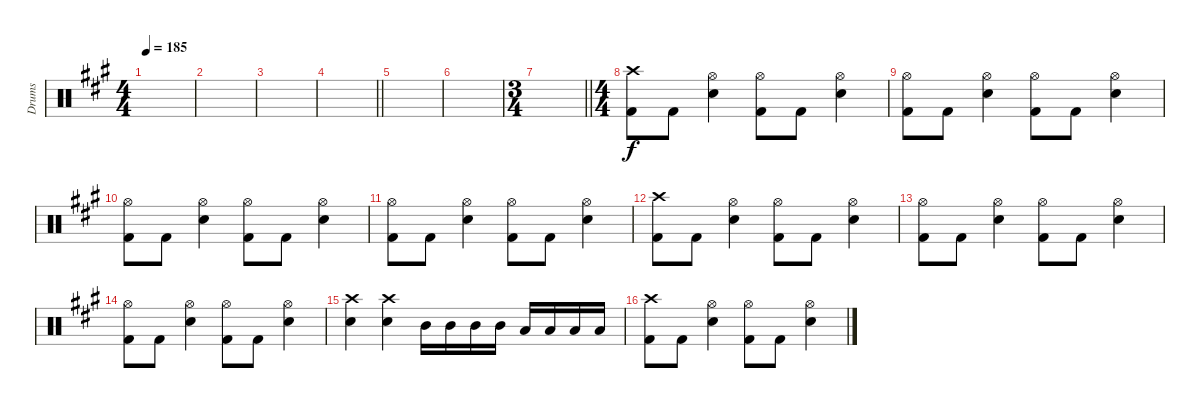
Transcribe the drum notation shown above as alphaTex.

\track ("Drums" "Drums") {instrument percussion}
\staff {score}
\articulation defaults
\ts (4 4)
\tempo 185
\clef neutral
\ks f#minor
|
|
|
\barLineRight lightlight
|
|
|
\ts (3 4)
\barLineRight lightlight
|
\ts (4 4)
("Crash high (hit)" "Kick (hit) 2").8{dy f} "Kick (hit) 2".8 ("Hi-Hat (open)" "Electric Snare (hit)").4 ("Hi-Hat (open)" "Kick (hit) 2").8 "Kick (hit) 2".8 ("Hi-Hat (open)" "Electric Snare (hit)").4 |
("Hi-Hat (open)" "Kick (hit) 2").8 "Kick (hit) 2".8 ("Hi-Hat (open)" "Electric Snare (hit)").4 ("Hi-Hat (open)" "Kick (hit) 2").8 "Kick (hit) 2".8 ("Hi-Hat (open)" "Electric Snare (hit)").4 |
("Hi-Hat (open)" "Kick (hit) 2").8 "Kick (hit) 2".8 ("Hi-Hat (open)" "Electric Snare (hit)").4 ("Hi-Hat (open)" "Kick (hit) 2").8 "Kick (hit) 2".8 ("Hi-Hat (open)" "Electric Snare (hit)").4 |
("Hi-Hat (open)" "Kick (hit) 2").8 "Kick (hit) 2".8 ("Hi-Hat (open)" "Electric Snare (hit)").4 ("Hi-Hat (open)" "Kick (hit) 2").8 "Kick (hit) 2".8 ("Hi-Hat (open)" "Electric Snare (hit)").4 |
("Crash high (hit)" "Kick (hit) 2").8 "Kick (hit) 2".8 ("Hi-Hat (open)" "Electric Snare (hit)").4 ("Hi-Hat (open)" "Kick (hit) 2").8 "Kick (hit) 2".8 ("Hi-Hat (open)" "Electric Snare (hit)").4 |
("Hi-Hat (open)" "Kick (hit) 2").8 "Kick (hit) 2".8 ("Hi-Hat (open)" "Electric Snare (hit)").4 ("Hi-Hat (open)" "Kick (hit) 2").8 "Kick (hit) 2".8 ("Hi-Hat (open)" "Electric Snare (hit)").4 |
("Hi-Hat (open)" "Kick (hit) 2").8 "Kick (hit) 2".8 ("Hi-Hat (open)" "Electric Snare (hit)").4 ("Hi-Hat (open)" "Kick (hit) 2").8 "Kick (hit) 2".8 ("Hi-Hat (open)" "Electric Snare (hit)").4 |
("Crash high (hit)" "Electric Snare (hit)").4 ("Crash high (hit)" "Electric Snare (hit)").4 "Mid Tom (hit)".16 "Mid Tom (hit)".16 "Mid Tom (hit)".16 "Mid Tom (hit)".16 "Low Tom (hit)".16 "Low Tom (hit)".16 "Low Tom (hit)".16 "Low Tom (hit)".16 |
("Crash high (hit)" "Kick (hit) 2").8 "Kick (hit) 2".8 ("Hi-Hat (open)" "Electric Snare (hit)").4 ("Hi-Hat (open)" "Kick (hit) 2").8 "Kick (hit) 2".8 ("Hi-Hat (open)" "Electric Snare (hit)").4
